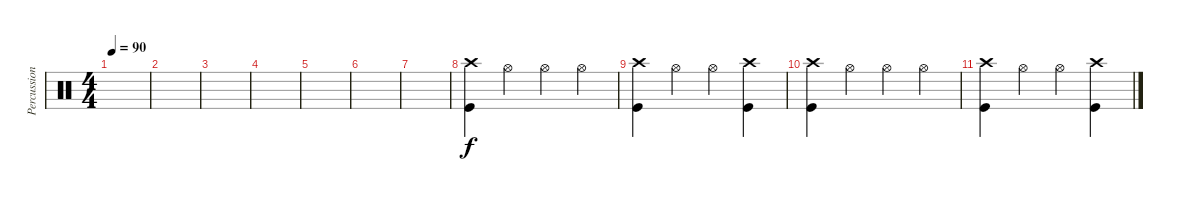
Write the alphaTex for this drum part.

\track ("Percussion" "Percussion") {instrument percussion}
\staff {score}
\articulation defaults
\ts (4 4)
\tempo 90
\clef neutral
\ks c
|
|
|
|
|
|
|
("Crash high (hit)" "Kick (hit)").4 "Hi-Hat (open)".4 "Hi-Hat (open)".4 "Hi-Hat (open)".4 |
("Crash high (hit)" "Kick (hit)").4 "Hi-Hat (open)".4 "Hi-Hat (open)".4 ("Crash high (hit)" "Kick (hit)").4 |
("Crash high (hit)" "Kick (hit)").4 "Hi-Hat (open)".4 "Hi-Hat (open)".4 "Hi-Hat (open)".4 |
("Crash high (hit)" "Kick (hit)").4 "Hi-Hat (open)".4 "Hi-Hat (open)".4 ("Crash high (hit)" "Kick (hit)").4
